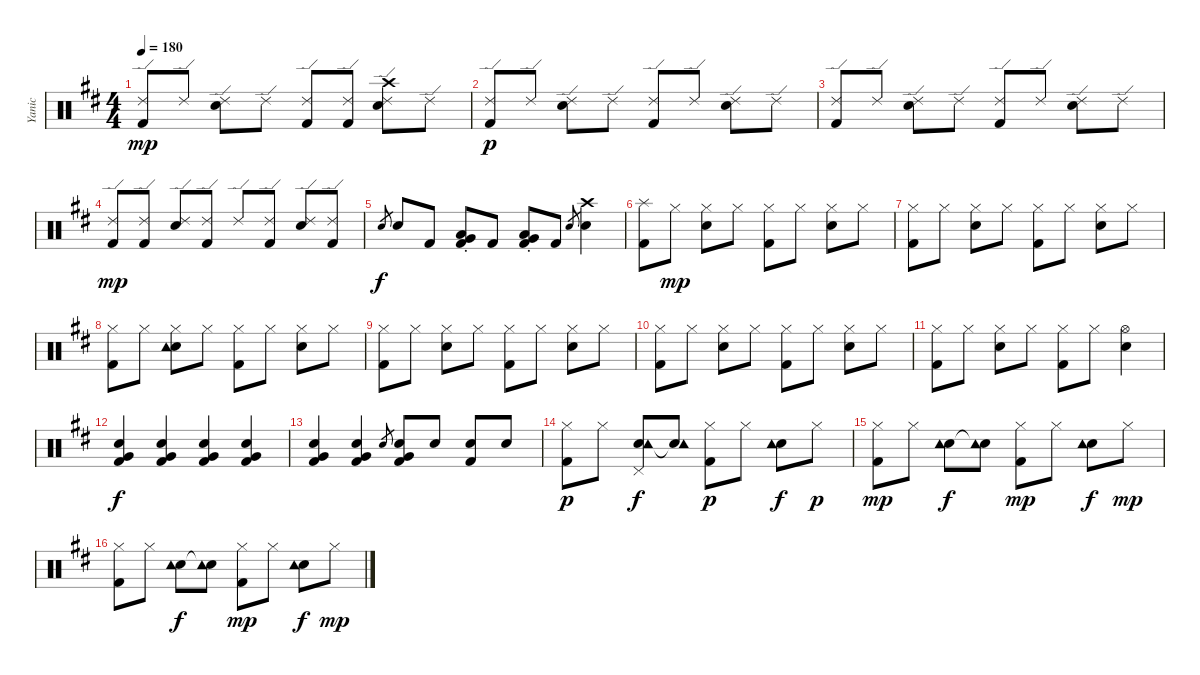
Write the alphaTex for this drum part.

\track ("Yanic" "Yanic") {instrument percussion}
\staff {score}
\articulation defaults
\ts (4 4)
\tempo 180
\clef neutral
\ks d
("Kick (hit) 2" "Ride (edge) 2").8{dy mp} "Ride (edge) 2".8 ("Electric Snare (hit)" "Ride (edge) 2").8 "Ride (edge) 2".8 ("Kick (hit) 2" "Ride (edge) 2").8 ("Kick (hit) 2" "Ride (edge) 2").8 ("Electric Snare (hit)" "Ride (edge) 2" "Crash high (hit)").8 "Ride (edge) 2".8 |
("Kick (hit) 2" "Ride (edge) 2").8{dy p} "Ride (edge) 2".8 ("Electric Snare (hit)" "Ride (edge) 2").8 "Ride (edge) 2".8 ("Kick (hit) 2" "Ride (edge) 2").8 "Ride (edge) 2".8 ("Electric Snare (hit)" "Ride (edge) 2").8 "Ride (edge) 2".8 |
("Kick (hit) 2" "Ride (edge) 2").8 "Ride (edge) 2".8 ("Electric Snare (hit)" "Ride (edge) 2").8 "Ride (edge) 2".8 ("Kick (hit) 2" "Ride (edge) 2").8 "Ride (edge) 2".8 ("Electric Snare (hit)" "Ride (edge) 2").8 "Ride (edge) 2".8 |
("Kick (hit) 2" "Ride (edge) 2").8{dy mp} ("Kick (hit) 2" "Ride (edge) 2").8 ("Electric Snare (hit)" "Ride (edge) 2").8 ("Kick (hit) 2" "Ride (edge) 2").8 "Ride (edge) 2".8 ("Kick (hit) 2" "Ride (edge) 2").8 ("Electric Snare (hit)" "Ride (edge) 2").8 ("Kick (hit) 2" "Ride (edge) 2").8 |
"Electric Snare (hit)".8{gr dy f} "Electric Snare (hit)".8 "Kick (hit) 2".8 ("Low Floor Tom (hit)"{st} "Very Low Tom (hit)"{st} "Kick (hit) 2"{st}).8 "Kick (hit) 2".8 ("Low Floor Tom (hit)"{st} "Very Low Tom (hit)"{st} "Kick (hit) 2"{st}).8 "Kick (hit) 2".8 "Electric Snare (hit)".8{gr} ("Electric Snare (hit)" "Crash high (hit)").4 |
("Kick (hit) 2" "Splash (hit)").8 "Hi-Hat (closed)".8{dy mp} ("Electric Snare (hit)" "Hi-Hat (closed)").8 "Hi-Hat (closed)".8 ("Kick (hit) 2" "Hi-Hat (closed)").8 "Hi-Hat (closed)".8 ("Electric Snare (hit)" "Hi-Hat (closed)").8 "Hi-Hat (closed)".8 |
("Kick (hit) 2" "Hi-Hat (closed)").8 "Hi-Hat (closed)".8 ("Electric Snare (hit)" "Hi-Hat (closed)").8 "Hi-Hat (closed)".8 ("Kick (hit) 2" "Hi-Hat (closed)").8 "Hi-Hat (closed)".8 ("Electric Snare (hit)" "Hi-Hat (closed)").8 "Hi-Hat (closed)".8 |
("Kick (hit) 2" "Hi-Hat (closed)").8 "Hi-Hat (closed)".8 ("Electric Snare (hit)" "Hi-Hat (closed)" "Tambourine (hit)").8 "Hi-Hat (closed)".8 ("Kick (hit) 2" "Hi-Hat (closed)").8 "Hi-Hat (closed)".8 ("Electric Snare (hit)" "Hi-Hat (closed)").8 "Hi-Hat (closed)".8 |
("Kick (hit) 2" "Hi-Hat (closed)").8 "Hi-Hat (closed)".8 ("Electric Snare (hit)" "Hi-Hat (closed)").8 "Hi-Hat (closed)".8 ("Kick (hit) 2" "Hi-Hat (closed)").8 "Hi-Hat (closed)".8 ("Electric Snare (hit)" "Hi-Hat (closed)").8 "Hi-Hat (closed)".8 |
("Kick (hit) 2" "Hi-Hat (closed)").8 "Hi-Hat (closed)".8 ("Electric Snare (hit)" "Hi-Hat (closed)").8 "Hi-Hat (closed)".8 ("Kick (hit) 2" "Hi-Hat (closed)").8 "Hi-Hat (closed)".8 ("Electric Snare (hit)" "Hi-Hat (closed)").8 "Hi-Hat (closed)".8 |
("Kick (hit) 2" "Hi-Hat (closed)").8 "Hi-Hat (closed)".8 ("Electric Snare (hit)" "Hi-Hat (closed)").8 "Hi-Hat (closed)".8 ("Kick (hit) 2" "Hi-Hat (closed)").8 "Hi-Hat (closed)".8 ("Electric Snare (hit)" "Hi-Hat (open)").4 |
("Electric Snare (hit)" "Kick (hit) 2" "Very Low Tom (hit)").4{dy f} ("Electric Snare (hit)" "Kick (hit) 2" "Very Low Tom (hit)").4 ("Electric Snare (hit)" "Kick (hit) 2" "Very Low Tom (hit)").4 ("Electric Snare (hit)" "Kick (hit) 2" "Very Low Tom (hit)").4 |
("Electric Snare (hit)" "Kick (hit) 2" "Very Low Tom (hit)").4 ("Electric Snare (hit)" "Kick (hit) 2" "Very Low Tom (hit)").4 "Electric Snare (hit)".8{gr} ("Electric Snare (hit)" "Kick (hit) 2" "Very Low Tom (hit)").8 "Electric Snare (hit)".8 ("Electric Snare (hit)" "Kick (hit) 2").8 "Electric Snare (hit)".8 |
("Kick (hit) 2" "Hi-Hat (closed)").8{dy p} "Hi-Hat (closed)".8 ("Electric Snare (hit)" "Tambourine (hit)" "Pedal Hi-Hat (hit)").8{dy f} ("Electric Snare (hit)" "Tambourine (hit)"{t}).8 ("Kick (hit) 2" "Hi-Hat (closed)").8{dy p} "Hi-Hat (closed)".8 ("Electric Snare (hit)" "Tambourine (hit)").8{dy f} "Hi-Hat (closed)".8{dy p} |
("Kick (hit) 2" "Hi-Hat (closed)").8{dy mp} "Hi-Hat (closed)".8 ("Electric Snare (hit)" "Tambourine (hit)").8{dy f} ("Electric Snare (hit)" "Tambourine (hit)"{t}).8 ("Kick (hit) 2" "Hi-Hat (closed)").8{dy mp} "Hi-Hat (closed)".8 ("Electric Snare (hit)" "Tambourine (hit)").8{dy f} "Hi-Hat (closed)".8{dy mp} |
("Kick (hit) 2" "Hi-Hat (closed)").8 "Hi-Hat (closed)".8 ("Electric Snare (hit)" "Tambourine (hit)").8{dy f} ("Electric Snare (hit)" "Tambourine (hit)"{t}).8 ("Kick (hit) 2" "Hi-Hat (closed)").8{dy mp} "Hi-Hat (closed)".8 ("Electric Snare (hit)" "Tambourine (hit)").8{dy f} "Hi-Hat (closed)".8{dy mp}
